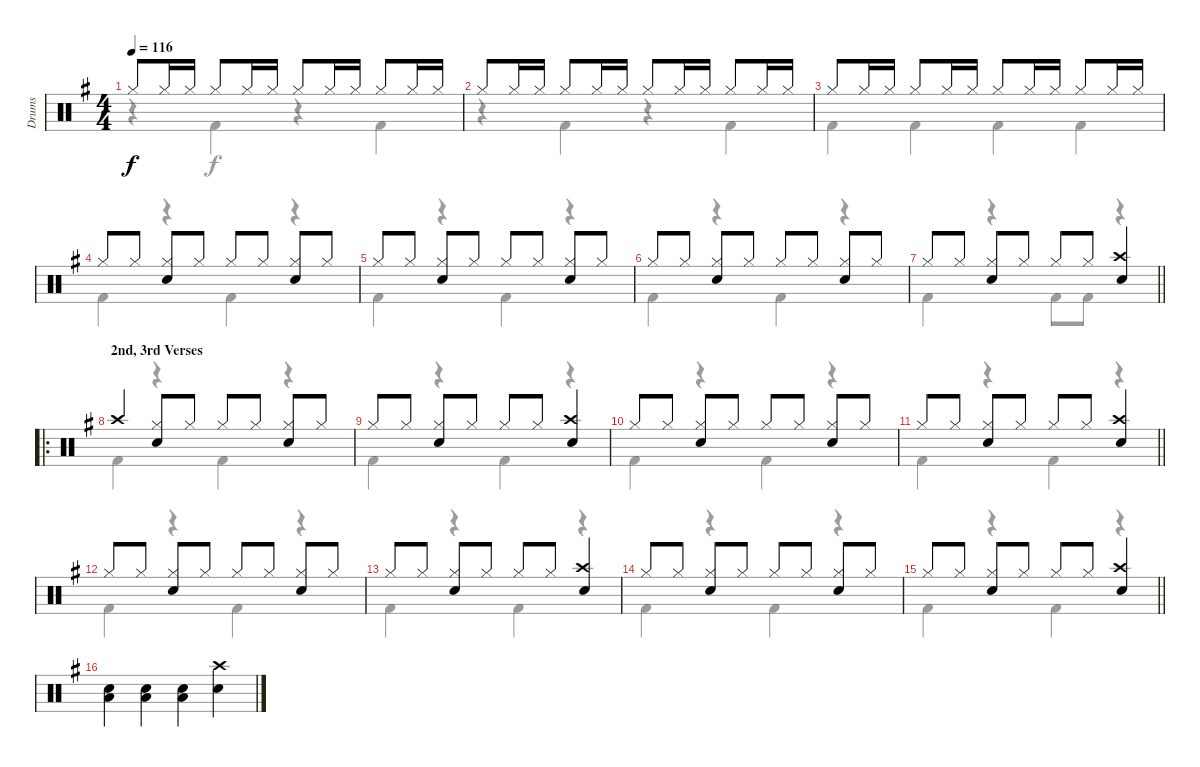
\track ("Drums" "Drums") {instrument percussion}
\staff {score}
\articulation defaults
\voice
\ts (4 4)
\tempo 116
\clef neutral
\ks g "Hi-Hat (closed)".8{dy f} "Hi-Hat (closed)".16 "Hi-Hat (closed)".16 "Hi-Hat (closed)".8 "Hi-Hat (closed)".16 "Hi-Hat (closed)".16 "Hi-Hat (closed)".8 "Hi-Hat (closed)".16 "Hi-Hat (closed)".16 "Hi-Hat (closed)".8 "Hi-Hat (closed)".16 "Hi-Hat (closed)".16
|
"Hi-Hat (closed)".8 "Hi-Hat (closed)".16 "Hi-Hat (closed)".16 "Hi-Hat (closed)".8 "Hi-Hat (closed)".16 "Hi-Hat (closed)".16 "Hi-Hat (closed)".8 "Hi-Hat (closed)".16 "Hi-Hat (closed)".16 "Hi-Hat (closed)".8 "Hi-Hat (closed)".16 "Hi-Hat (closed)".16 |
"Hi-Hat (closed)".8 "Hi-Hat (closed)".16 "Hi-Hat (closed)".16 "Hi-Hat (closed)".8 "Hi-Hat (closed)".16 "Hi-Hat (closed)".16 "Hi-Hat (closed)".8 "Hi-Hat (closed)".16 "Hi-Hat (closed)".16 "Hi-Hat (closed)".8 "Hi-Hat (closed)".16 "Hi-Hat (closed)".16 |
"Hi-Hat (closed)".8 "Hi-Hat (closed)".8 ("Hi-Hat (closed)" "Snare (hit) 2").8 "Hi-Hat (closed)".8 "Hi-Hat (closed)".8 "Hi-Hat (closed)".8 ("Hi-Hat (closed)" "Snare (hit) 2").8 "Hi-Hat (closed)".8 |
"Hi-Hat (closed)".8 "Hi-Hat (closed)".8 ("Hi-Hat (closed)" "Snare (hit) 2").8 "Hi-Hat (closed)".8 "Hi-Hat (closed)".8 "Hi-Hat (closed)".8 ("Hi-Hat (closed)" "Snare (hit) 2").8 "Hi-Hat (closed)".8 |
"Hi-Hat (closed)".8 "Hi-Hat (closed)".8 ("Hi-Hat (closed)" "Snare (hit) 2").8 "Hi-Hat (closed)".8 "Hi-Hat (closed)".8 "Hi-Hat (closed)".8 ("Hi-Hat (closed)" "Snare (hit) 2").8 "Hi-Hat (closed)".8 |
\barLineRight lightlight "Hi-Hat (closed)".8 "Hi-Hat (closed)".8
("Hi-Hat (closed)" "Snare (hit) 2").8 "Hi-Hat (closed)".8 "Hi-Hat (closed)".8 "Hi-Hat (closed)".8 ("Crash high (hit)" "Snare (hit) 2").4 |
\ro
\section ("" "2nd, 3rd Verses")
"Crash high (hit)".4 ("Hi-Hat (closed)" "Snare (hit) 2").8 "Hi-Hat (closed)".8 "Hi-Hat (closed)".8 "Hi-Hat (closed)".8 ("Hi-Hat (closed)" "Snare (hit) 2").8 "Hi-Hat (closed)".8 |
"Hi-Hat (closed)".8 "Hi-Hat (closed)".8 ("Hi-Hat (closed)" "Snare (hit) 2").8 "Hi-Hat (closed)".8 "Hi-Hat (closed)".8 "Hi-Hat (closed)".8 ("Crash high (hit)" "Snare (hit) 2").4 |
"Hi-Hat (closed)".8 "Hi-Hat (closed)".8 ("Hi-Hat (closed)" "Snare (hit) 2").8 "Hi-Hat (closed)".8 "Hi-Hat (closed)".8 "Hi-Hat (closed)".8 ("Hi-Hat (closed)" "Snare (hit) 2").8 "Hi-Hat (closed)".8 |
\barLineRight lightlight "Hi-Hat (closed)".8 "Hi-Hat (closed)".8
("Hi-Hat (closed)" "Snare (hit) 2").8 "Hi-Hat (closed)".8 "Hi-Hat (closed)".8 "Hi-Hat (closed)".8 ("Crash high (hit)" "Snare (hit) 2").4 |
"Hi-Hat (closed)".8 "Hi-Hat (closed)".8 ("Hi-Hat (closed)" "Snare (hit) 2").8 "Hi-Hat (closed)".8 "Hi-Hat (closed)".8 "Hi-Hat (closed)".8 ("Hi-Hat (closed)" "Snare (hit) 2").8 "Hi-Hat (closed)".8 |
"Hi-Hat (closed)".8 "Hi-Hat (closed)".8 ("Hi-Hat (closed)" "Snare (hit) 2").8 "Hi-Hat (closed)".8 "Hi-Hat (closed)".8 "Hi-Hat (closed)".8 ("Crash high (hit)" "Snare (hit) 2").4 |
"Hi-Hat (closed)".8 "Hi-Hat (closed)".8 ("Hi-Hat (closed)" "Snare (hit) 2").8 "Hi-Hat (closed)".8 "Hi-Hat (closed)".8 "Hi-Hat (closed)".8 ("Hi-Hat (closed)" "Snare (hit) 2").8 "Hi-Hat (closed)".8 |
\barLineRight lightlight "Hi-Hat (closed)".8 "Hi-Hat (closed)".8
("Hi-Hat (closed)" "Snare (hit) 2").8 "Hi-Hat (closed)".8 "Hi-Hat (closed)".8 "Hi-Hat (closed)".8 ("Crash high (hit)" "Snare (hit) 2").4 |
("Low Floor Tom (hit)" "Snare (hit) 2").4 ("Low Floor Tom (hit)" "Snare (hit) 2").4 ("Low Floor Tom (hit)" "Snare (hit) 2").4 ("Crash high (hit)" "Snare (hit) 2").4
\voice
\clef neutral
\ottava regular
\simile none
\ks g
r.4{dy f} "Kick (hit) 2".4 r.4 "Kick (hit) 2".4 |
r.4 "Kick (hit) 2".4 r.4 "Kick (hit) 2".4 |
"Kick (hit) 2".4 "Kick (hit) 2".4 "Kick (hit) 2".4 "Kick (hit) 2".4 |
"Kick (hit) 2".4 r.4 "Kick (hit) 2".4 r.4 |
"Kick (hit) 2".4 r.4 "Kick (hit) 2".4 r.4 |
"Kick (hit) 2".4 r.4 "Kick (hit) 2".4 r.4 |
\barLineRight lightlight "Kick (hit) 2".4
r.4 "Kick (hit) 2".8 "Kick (hit) 2".8 r.4 |
"Kick (hit) 2".4 r.4 "Kick (hit) 2".4 r.4 |
"Kick (hit) 2".4 r.4 "Kick (hit) 2".4 r.4 |
"Kick (hit) 2".4 r.4 "Kick (hit) 2".4 r.4 |
\barLineRight lightlight "Kick (hit) 2".4
r.4 "Kick (hit) 2".4 r.4 |
"Kick (hit) 2".4 r.4 "Kick (hit) 2".4 r.4 |
"Kick (hit) 2".4 r.4 "Kick (hit) 2".4 r.4 |
"Kick (hit) 2".4 r.4 "Kick (hit) 2".4 r.4 |
\barLineRight lightlight "Kick (hit) 2".4
r.4 "Kick (hit) 2".4 r.4 |
